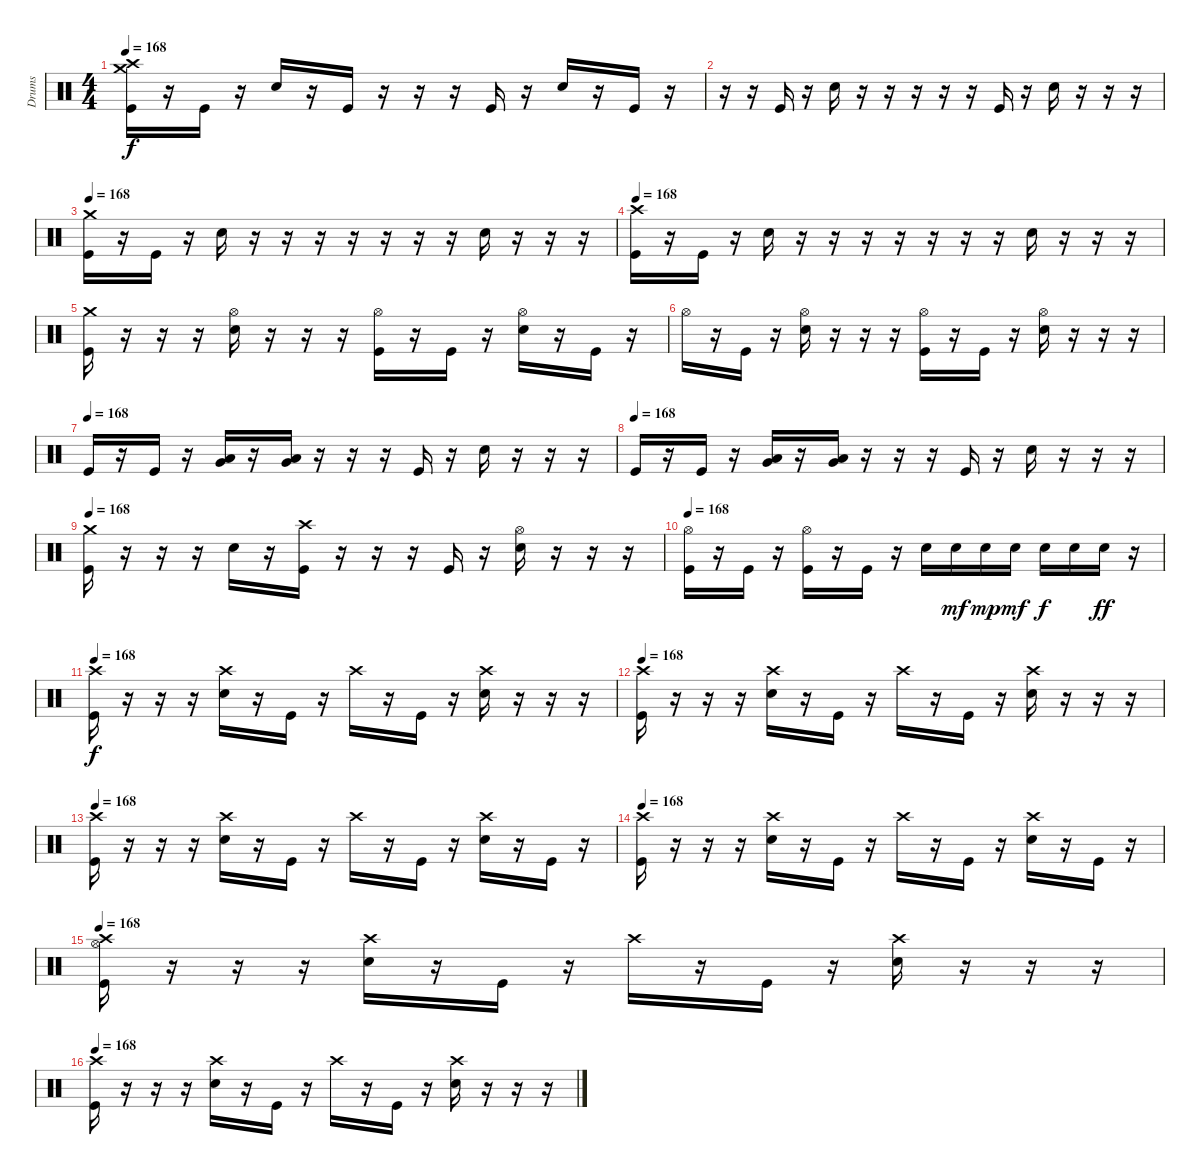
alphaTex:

\track ("Drums" "Drums") {instrument percussion}
\staff {score}
\articulation defaults
\ts (4 4)
\tempo 168
\clef neutral
\ks c
("Kick (hit)" "Crash high (hit)" "Crash medium (hit)").16{dy f} r.16 "Kick (hit)".16 r.16 "Electric Snare (hit)".16 r.16 "Kick (hit)".16 r.16 r.16 r.16 "Kick (hit)".16 r.16 "Electric Snare (hit)".16 r.16 "Kick (hit)".16 r.16 |
r.16 r.16 "Kick (hit)".16 r.16 "Electric Snare (hit)".16 r.16 r.16 r.16 r.16 r.16 "Kick (hit)".16 r.16 "Electric Snare (hit)".16 r.16 r.16 r.16 |
\tempo 166
\tempo 168
("Kick (hit)" "Crash medium (hit)").16 r.16 "Kick (hit)".16 r.16 "Electric Snare (hit)".16 r.16 r.16 r.16 r.16 r.16 r.16 r.16 "Electric Snare (hit)".16 r.16 r.16 r.16 |
\tempo 168
("Kick (hit)" "Crash high (hit)").16 r.16 "Kick (hit)".16 r.16 "Electric Snare (hit)".16 r.16 r.16 r.16 r.16 r.16 r.16 r.16 "Electric Snare (hit)".16 r.16 r.16 r.16 |
("Crash medium (hit)" "Kick (hit)").16 r.16 r.16 r.16 ("Hi-Hat (open)" "Electric Snare (hit)").16 r.16 r.16 r.16 ("Hi-Hat (open)" "Kick (hit)").16 r.16 "Kick (hit)".16 r.16 ("Hi-Hat (open)" "Electric Snare (hit)").16 r.16 "Kick (hit)".16 r.16 |
"Hi-Hat (open)".16 r.16 "Kick (hit)".16 r.16 ("Hi-Hat (open)" "Electric Snare (hit)").16 r.16 r.16 r.16 ("Hi-Hat (open)" "Kick (hit)").16 r.16 "Kick (hit)".16 r.16 ("Hi-Hat (open)" "Electric Snare (hit)").16 r.16 r.16 r.16 |
\tempo 166
\tempo (168)
"Kick (hit)".16 r.16 "Kick (hit)".16 r.16 ("Very Low Tom (hit)" "Low Tom (hit)").16 r.16 ("Very Low Tom (hit)" "Low Floor Tom (hit)").16 r.16 r.16 r.16 "Kick (hit)".16 r.16 "Electric Snare (hit)".16 r.16 r.16 r.16 |
\tempo (168)
"Kick (hit)".16 r.16 "Kick (hit)".16 r.16 ("Very Low Tom (hit)" "Low Tom (hit)").16 r.16 ("Very Low Tom (hit)" "Low Floor Tom (hit)").16 r.16 r.16 r.16 "Kick (hit)".16 r.16 "Electric Snare (hit)".16 r.16 r.16 r.16 |
\tempo 168
("Crash medium (hit)" "Kick (hit)").16 r.16 r.16 r.16 "Electric Snare (hit)".16 r.16 ("Kick (hit)" "Crash high (hit)").16 r.16 r.16 r.16 "Kick (hit)".16 r.16 ("Hi-Hat (open)" "Electric Snare (hit)").16 r.16 r.16 r.16 |
\tempo 168
("Hi-Hat (open)" "Kick (hit)").16 r.16 "Kick (hit)".16 r.16 ("Hi-Hat (open)" "Kick (hit)").16 r.16 "Kick (hit)".16 r.16 "Electric Snare (hit)".16 "Electric Snare (hit)".16{dy mf} "Electric Snare (hit)".16{dy mp} "Electric Snare (hit)".16{dy mf} "Electric Snare (hit)".16{dy f} "Electric Snare (hit)".16 "Electric Snare (hit)".16{dy ff} r.16 |
\tempo 164
\tempo 168
("Kick (hit)" "Crash high (hit)").16{dy f} r.16 r.16 r.16 ("Electric Snare (hit)" "Crash high (hit)").16 r.16 "Kick (hit)".16 r.16 "Crash high (hit)".16 r.16 "Kick (hit)".16 r.16 ("Electric Snare (hit)" "Crash high (hit)").16 r.16 r.16 r.16 |
\tempo 168
("Kick (hit)" "Crash high (hit)").16 r.16 r.16 r.16 ("Electric Snare (hit)" "Crash high (hit)").16 r.16 "Kick (hit)".16 r.16 "Crash high (hit)".16 r.16 "Kick (hit)".16 r.16 ("Electric Snare (hit)" "Crash high (hit)").16 r.16 r.16 r.16 |
\tempo 168
("Kick (hit)" "Crash high (hit)").16 r.16 r.16 r.16 ("Electric Snare (hit)" "Crash high (hit)").16 r.16 "Kick (hit)".16 r.16 "Crash high (hit)".16 r.16 "Kick (hit)".16 r.16 ("Electric Snare (hit)" "Crash high (hit)").16 r.16 "Kick (hit)".16 r.16 |
\tempo 168
("Kick (hit)" "Crash high (hit)").16 r.16 r.16 r.16 ("Electric Snare (hit)" "Crash high (hit)").16 r.16 "Kick (hit)".16 r.16 "Crash high (hit)".16 r.16 "Kick (hit)".16 r.16 ("Electric Snare (hit)" "Crash high (hit)").16 r.16 "Kick (hit)".16 r.16 |
\tempo 164
\tempo 168
("Hi-Hat (open)" "Kick (hit)" "Crash high (hit)").16 r.16 r.16 r.16 ("Electric Snare (hit)" "Crash high (hit)").16 r.16 "Kick (hit)".16 r.16 "Crash high (hit)".16 r.16 "Kick (hit)".16 r.16 ("Electric Snare (hit)" "Crash high (hit)").16 r.16 r.16 r.16 |
\tempo 168
("Kick (hit)" "Crash high (hit)").16 r.16 r.16 r.16 ("Electric Snare (hit)" "Crash high (hit)").16 r.16 "Kick (hit)".16 r.16 "Crash high (hit)".16 r.16 "Kick (hit)".16 r.16 ("Electric Snare (hit)" "Crash high (hit)").16 r.16 r.16 r.16
